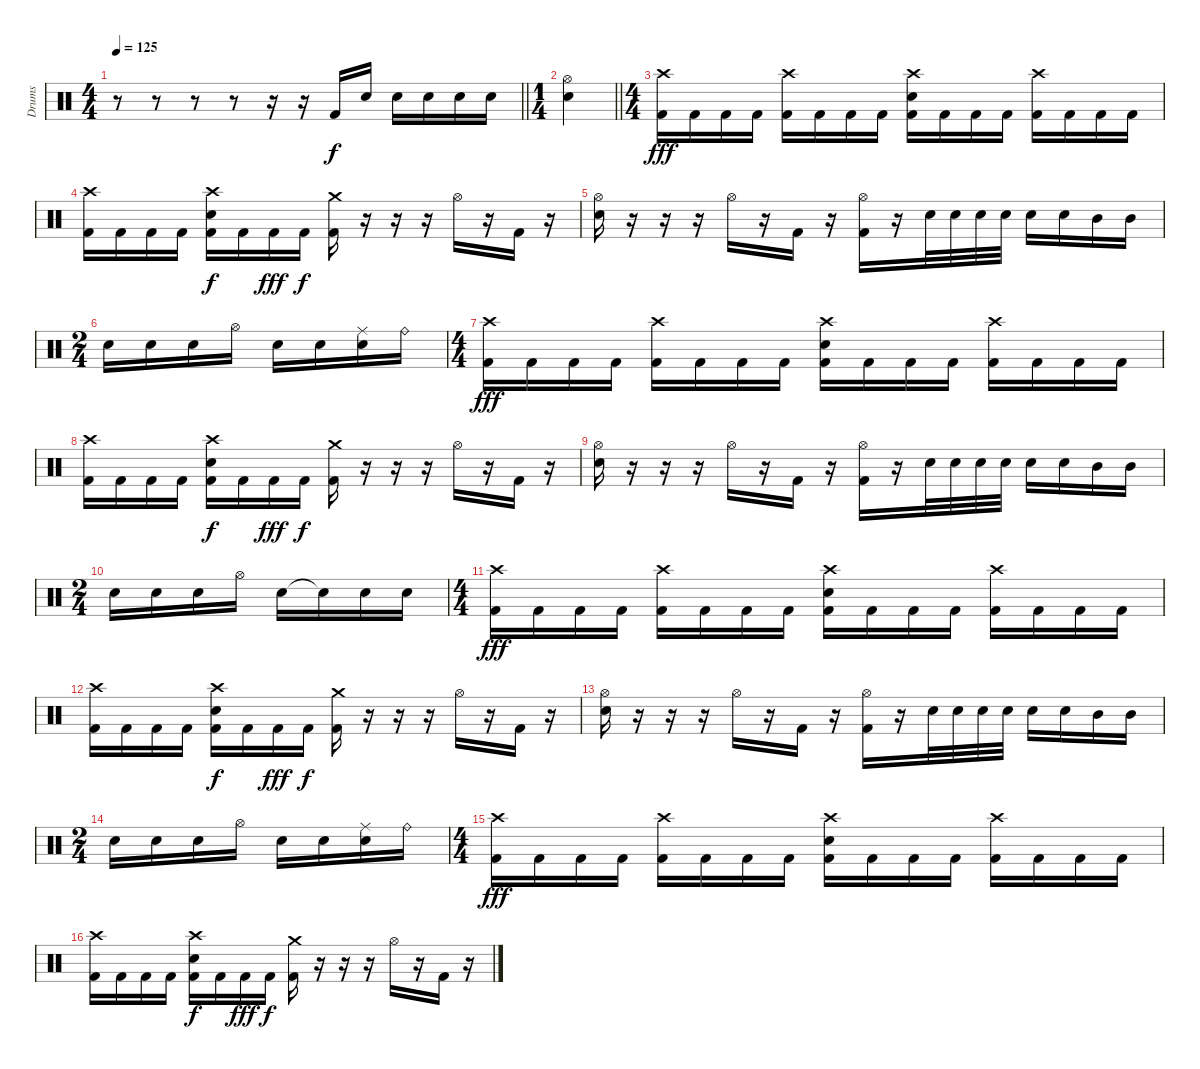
\track ("Drums" "Drums") {instrument percussion}
\staff {score}
\articulation defaults
\ts (4 4)
\tempo 125
\clef neutral
\barLineRight lightlight
\ks c
r.8{dy f} r.8 r.8 r.8 r.16 r.16 "Kick (hit) 2".16 "Electric Snare (hit)".16 "Electric Snare (hit)".16 "Electric Snare (hit)".16 "Electric Snare (hit)".16 "Electric Snare (hit)".16 |
\ts (1 4)
\section ("" "")
\barLineRight lightlight
("Hi-Hat (open)" "Electric Snare (hit)").4 |
\ts (4 4)
\section ("" "")
("Crash high (hit)" "Kick (hit) 2").16{dy fff} "Kick (hit) 2".16 "Kick (hit) 2".16 "Kick (hit) 2".16 ("Crash high (hit)" "Kick (hit) 2").16 "Kick (hit) 2".16 "Kick (hit) 2".16 "Kick (hit) 2".16 ("Crash high (hit)" "Electric Snare (hit)" "Kick (hit) 2").16 "Kick (hit) 2".16 "Kick (hit) 2".16 "Kick (hit) 2".16 ("Crash high (hit)" "Kick (hit) 2").16 "Kick (hit) 2".16 "Kick (hit) 2".16 "Kick (hit) 2".16 |
("Crash high (hit)" "Kick (hit) 2").16 "Kick (hit) 2".16 "Kick (hit) 2".16 "Kick (hit) 2".16 ("Crash high (hit)" "Electric Snare (hit)" "Kick (hit) 2").16{dy f} "Kick (hit) 2".16 "Kick (hit) 2".16{dy fff} "Kick (hit) 2".16{dy f} ("Crash medium (hit)" "Kick (hit) 2").16 r.16 r.16 r.16 "Hi-Hat (open)".16 r.16 "Kick (hit) 2".16 r.16 |
("Hi-Hat (open)" "Electric Snare (hit)").16 r.16 r.16 r.16 "Hi-Hat (open)".16 r.16 "Kick (hit) 2".16 r.16 ("Hi-Hat (open)" "Kick (hit) 2").16 r.16 "Electric Snare (hit)".32 "Electric Snare (hit)".32 "Electric Snare (hit)".32 "Electric Snare (hit)".32 "Electric Snare (hit)".16 "Electric Snare (hit)".16 "Mid Tom (hit)".16 "Mid Tom (hit)".16 |
\ts (2 4)
"Electric Snare (hit)".16 "Electric Snare (hit)".16 "Electric Snare (hit)".16 "Hi-Hat (open)".16 "Electric Snare (hit)".16 "Electric Snare (hit)".16 ("Ride (middle)" "Electric Snare (hit)").16 "Ride (bell)".16 |
\ts (4 4)
("Crash high (hit)" "Kick (hit) 2").16{dy fff} "Kick (hit) 2".16 "Kick (hit) 2".16 "Kick (hit) 2".16 ("Crash high (hit)" "Kick (hit) 2").16 "Kick (hit) 2".16 "Kick (hit) 2".16 "Kick (hit) 2".16 ("Crash high (hit)" "Electric Snare (hit)" "Kick (hit) 2").16 "Kick (hit) 2".16 "Kick (hit) 2".16 "Kick (hit) 2".16 ("Crash high (hit)" "Kick (hit) 2").16 "Kick (hit) 2".16 "Kick (hit) 2".16 "Kick (hit) 2".16 |
("Crash high (hit)" "Kick (hit) 2").16 "Kick (hit) 2".16 "Kick (hit) 2".16 "Kick (hit) 2".16 ("Crash high (hit)" "Electric Snare (hit)" "Kick (hit) 2").16{dy f} "Kick (hit) 2".16 "Kick (hit) 2".16{dy fff} "Kick (hit) 2".16{dy f} ("Crash medium (hit)" "Kick (hit) 2").16 r.16 r.16 r.16 "Hi-Hat (open)".16 r.16 "Kick (hit) 2".16 r.16 |
("Hi-Hat (open)" "Electric Snare (hit)").16 r.16 r.16 r.16 "Hi-Hat (open)".16 r.16 "Kick (hit) 2".16 r.16 ("Hi-Hat (open)" "Kick (hit) 2").16 r.16 "Electric Snare (hit)".32 "Electric Snare (hit)".32 "Electric Snare (hit)".32 "Electric Snare (hit)".32 "Electric Snare (hit)".16 "Electric Snare (hit)".16 "Mid Tom (hit)".16 "Mid Tom (hit)".16 |
\ts (2 4)
"Electric Snare (hit)".16 "Electric Snare (hit)".16 "Electric Snare (hit)".16 "Hi-Hat (open)".16 "Electric Snare (hit)".16 "Electric Snare (hit)"{t}.16 "Electric Snare (hit)".16 "Electric Snare (hit)".16 |
\ts (4 4)
("Crash high (hit)" "Kick (hit) 2").16{dy fff} "Kick (hit) 2".16 "Kick (hit) 2".16 "Kick (hit) 2".16 ("Crash high (hit)" "Kick (hit) 2").16 "Kick (hit) 2".16 "Kick (hit) 2".16 "Kick (hit) 2".16 ("Crash high (hit)" "Electric Snare (hit)" "Kick (hit) 2").16 "Kick (hit) 2".16 "Kick (hit) 2".16 "Kick (hit) 2".16 ("Crash high (hit)" "Kick (hit) 2").16 "Kick (hit) 2".16 "Kick (hit) 2".16 "Kick (hit) 2".16 |
("Crash high (hit)" "Kick (hit) 2").16 "Kick (hit) 2".16 "Kick (hit) 2".16 "Kick (hit) 2".16 ("Crash high (hit)" "Electric Snare (hit)" "Kick (hit) 2").16{dy f} "Kick (hit) 2".16 "Kick (hit) 2".16{dy fff} "Kick (hit) 2".16{dy f} ("Crash medium (hit)" "Kick (hit) 2").16 r.16 r.16 r.16 "Hi-Hat (open)".16 r.16 "Kick (hit) 2".16 r.16 |
("Hi-Hat (open)" "Electric Snare (hit)").16 r.16 r.16 r.16 "Hi-Hat (open)".16 r.16 "Kick (hit) 2".16 r.16 ("Hi-Hat (open)" "Kick (hit) 2").16 r.16 "Electric Snare (hit)".32 "Electric Snare (hit)".32 "Electric Snare (hit)".32 "Electric Snare (hit)".32 "Electric Snare (hit)".16 "Electric Snare (hit)".16 "Mid Tom (hit)".16 "Mid Tom (hit)".16 |
\ts (2 4)
"Electric Snare (hit)".16 "Electric Snare (hit)".16 "Electric Snare (hit)".16 "Hi-Hat (open)".16 "Electric Snare (hit)".16 "Electric Snare (hit)".16 ("Ride (middle)" "Electric Snare (hit)").16 "Ride (bell)".16 |
\ts (4 4)
("Crash high (hit)" "Kick (hit) 2").16{dy fff} "Kick (hit) 2".16 "Kick (hit) 2".16 "Kick (hit) 2".16 ("Crash high (hit)" "Kick (hit) 2").16 "Kick (hit) 2".16 "Kick (hit) 2".16 "Kick (hit) 2".16 ("Crash high (hit)" "Electric Snare (hit)" "Kick (hit) 2").16 "Kick (hit) 2".16 "Kick (hit) 2".16 "Kick (hit) 2".16 ("Crash high (hit)" "Kick (hit) 2").16 "Kick (hit) 2".16 "Kick (hit) 2".16 "Kick (hit) 2".16 |
("Crash high (hit)" "Kick (hit) 2").16 "Kick (hit) 2".16 "Kick (hit) 2".16 "Kick (hit) 2".16 ("Crash high (hit)" "Electric Snare (hit)" "Kick (hit) 2").16{dy f} "Kick (hit) 2".16 "Kick (hit) 2".16{dy fff} "Kick (hit) 2".16{dy f} ("Crash medium (hit)" "Kick (hit) 2").16 r.16 r.16 r.16 "Hi-Hat (open)".16 r.16 "Kick (hit) 2".16 r.16
